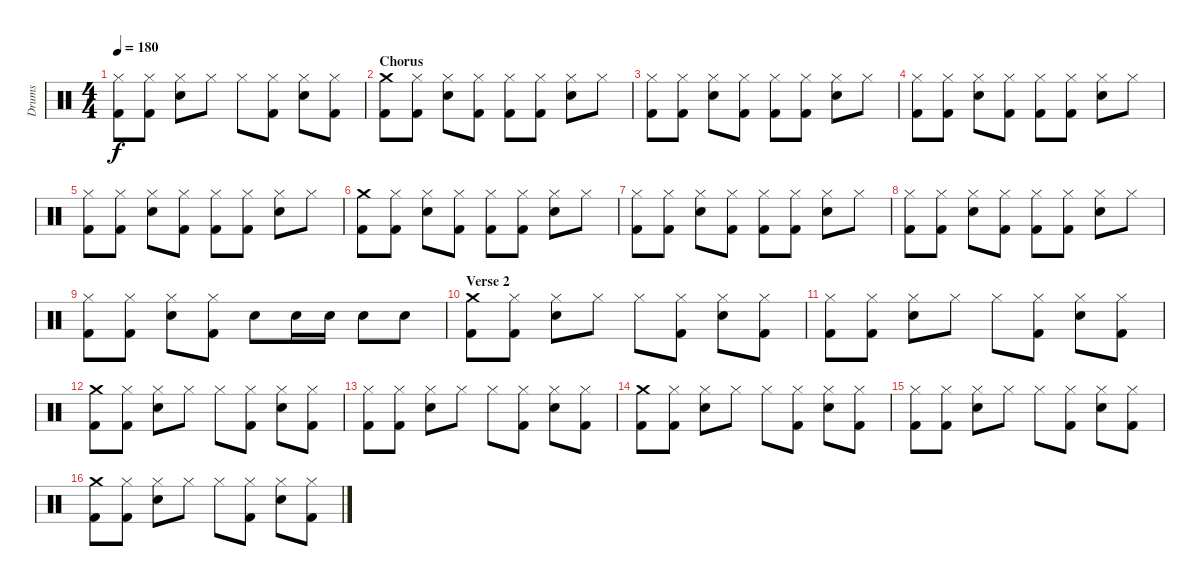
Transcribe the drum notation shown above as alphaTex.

\track ("Drums" "Drums") {instrument percussion}
\staff {score}
\articulation defaults
\ts (4 4)
\tempo 180
\clef neutral
\ks c
("Hi-Hat (closed)" "Kick (hit) 2").8{dy f} ("Hi-Hat (closed)" "Kick (hit) 2").8 ("Hi-Hat (closed)" "Electric Snare (hit)").8 "Hi-Hat (closed)".8 "Hi-Hat (closed)".8 ("Hi-Hat (closed)" "Kick (hit) 2").8 ("Hi-Hat (closed)" "Electric Snare (hit)").8 ("Hi-Hat (closed)" "Kick (hit) 2").8 |
\section ("" "Chorus")
("Crash medium (hit)" "Kick (hit) 2").8 ("Hi-Hat (closed)" "Kick (hit) 2").8 ("Hi-Hat (closed)" "Electric Snare (hit)").8 ("Hi-Hat (closed)" "Kick (hit) 2").8 ("Hi-Hat (closed)" "Kick (hit) 2").8 ("Hi-Hat (closed)" "Kick (hit) 2").8 ("Hi-Hat (closed)" "Electric Snare (hit)").8 "Hi-Hat (closed)".8 |
("Hi-Hat (closed)" "Kick (hit) 2").8 ("Hi-Hat (closed)" "Kick (hit) 2").8 ("Hi-Hat (closed)" "Electric Snare (hit)").8 ("Hi-Hat (closed)" "Kick (hit) 2").8 ("Hi-Hat (closed)" "Kick (hit) 2").8 ("Hi-Hat (closed)" "Kick (hit) 2").8 ("Hi-Hat (closed)" "Electric Snare (hit)").8 "Hi-Hat (closed)".8 |
("Hi-Hat (closed)" "Kick (hit) 2").8 ("Hi-Hat (closed)" "Kick (hit) 2").8 ("Hi-Hat (closed)" "Electric Snare (hit)").8 ("Hi-Hat (closed)" "Kick (hit) 2").8 ("Hi-Hat (closed)" "Kick (hit) 2").8 ("Hi-Hat (closed)" "Kick (hit) 2").8 ("Hi-Hat (closed)" "Electric Snare (hit)").8 "Hi-Hat (closed)".8 |
("Hi-Hat (closed)" "Kick (hit) 2").8 ("Hi-Hat (closed)" "Kick (hit) 2").8 ("Hi-Hat (closed)" "Electric Snare (hit)").8 ("Hi-Hat (closed)" "Kick (hit) 2").8 ("Hi-Hat (closed)" "Kick (hit) 2").8 ("Hi-Hat (closed)" "Kick (hit) 2").8 ("Hi-Hat (closed)" "Electric Snare (hit)").8 "Hi-Hat (closed)".8 |
("Crash medium (hit)" "Kick (hit) 2").8 ("Hi-Hat (closed)" "Kick (hit) 2").8 ("Hi-Hat (closed)" "Electric Snare (hit)").8 ("Hi-Hat (closed)" "Kick (hit) 2").8 ("Hi-Hat (closed)" "Kick (hit) 2").8 ("Hi-Hat (closed)" "Kick (hit) 2").8 ("Hi-Hat (closed)" "Electric Snare (hit)").8 "Hi-Hat (closed)".8 |
("Hi-Hat (closed)" "Kick (hit) 2").8 ("Hi-Hat (closed)" "Kick (hit) 2").8 ("Hi-Hat (closed)" "Electric Snare (hit)").8 ("Hi-Hat (closed)" "Kick (hit) 2").8 ("Hi-Hat (closed)" "Kick (hit) 2").8 ("Hi-Hat (closed)" "Kick (hit) 2").8 ("Hi-Hat (closed)" "Electric Snare (hit)").8 "Hi-Hat (closed)".8 |
("Hi-Hat (closed)" "Kick (hit) 2").8 ("Hi-Hat (closed)" "Kick (hit) 2").8 ("Hi-Hat (closed)" "Electric Snare (hit)").8 ("Hi-Hat (closed)" "Kick (hit) 2").8 ("Hi-Hat (closed)" "Kick (hit) 2").8 ("Hi-Hat (closed)" "Kick (hit) 2").8 ("Hi-Hat (closed)" "Electric Snare (hit)").8 "Hi-Hat (closed)".8 |
("Hi-Hat (closed)" "Kick (hit) 2").8 ("Hi-Hat (closed)" "Kick (hit) 2").8 ("Hi-Hat (closed)" "Electric Snare (hit)").8 ("Hi-Hat (closed)" "Kick (hit) 2").8 "Electric Snare (hit)".8 "Electric Snare (hit)".16 "Electric Snare (hit)".16 "Electric Snare (hit)".8 "Electric Snare (hit)".8 |
\section ("" "Verse 2")
("Crash medium (hit)" "Kick (hit) 2").8 ("Hi-Hat (closed)" "Kick (hit) 2").8 ("Hi-Hat (closed)" "Electric Snare (hit)").8 "Hi-Hat (closed)".8 "Hi-Hat (closed)".8 ("Hi-Hat (closed)" "Kick (hit) 2").8 ("Hi-Hat (closed)" "Electric Snare (hit)").8 ("Hi-Hat (closed)" "Kick (hit) 2").8 |
("Hi-Hat (closed)" "Kick (hit) 2").8 ("Hi-Hat (closed)" "Kick (hit) 2").8 ("Hi-Hat (closed)" "Electric Snare (hit)").8 "Hi-Hat (closed)".8 "Hi-Hat (closed)".8 ("Hi-Hat (closed)" "Kick (hit) 2").8 ("Hi-Hat (closed)" "Electric Snare (hit)").8 ("Hi-Hat (closed)" "Kick (hit) 2").8 |
("Crash medium (hit)" "Kick (hit) 2").8 ("Hi-Hat (closed)" "Kick (hit) 2").8 ("Hi-Hat (closed)" "Electric Snare (hit)").8 "Hi-Hat (closed)".8 "Hi-Hat (closed)".8 ("Hi-Hat (closed)" "Kick (hit) 2").8 ("Hi-Hat (closed)" "Electric Snare (hit)").8 ("Hi-Hat (closed)" "Kick (hit) 2").8 |
("Hi-Hat (closed)" "Kick (hit) 2").8 ("Hi-Hat (closed)" "Kick (hit) 2").8 ("Hi-Hat (closed)" "Electric Snare (hit)").8 "Hi-Hat (closed)".8 "Hi-Hat (closed)".8 ("Hi-Hat (closed)" "Kick (hit) 2").8 ("Hi-Hat (closed)" "Electric Snare (hit)").8 ("Hi-Hat (closed)" "Kick (hit) 2").8 |
("Crash medium (hit)" "Kick (hit) 2").8 ("Hi-Hat (closed)" "Kick (hit) 2").8 ("Hi-Hat (closed)" "Electric Snare (hit)").8 "Hi-Hat (closed)".8 "Hi-Hat (closed)".8 ("Hi-Hat (closed)" "Kick (hit) 2").8 ("Hi-Hat (closed)" "Electric Snare (hit)").8 ("Hi-Hat (closed)" "Kick (hit) 2").8 |
("Hi-Hat (closed)" "Kick (hit) 2").8 ("Hi-Hat (closed)" "Kick (hit) 2").8 ("Hi-Hat (closed)" "Electric Snare (hit)").8 "Hi-Hat (closed)".8 "Hi-Hat (closed)".8 ("Hi-Hat (closed)" "Kick (hit) 2").8 ("Hi-Hat (closed)" "Electric Snare (hit)").8 ("Hi-Hat (closed)" "Kick (hit) 2").8 |
("Crash medium (hit)" "Kick (hit) 2").8 ("Hi-Hat (closed)" "Kick (hit) 2").8 ("Hi-Hat (closed)" "Electric Snare (hit)").8 "Hi-Hat (closed)".8 "Hi-Hat (closed)".8 ("Hi-Hat (closed)" "Kick (hit) 2").8 ("Hi-Hat (closed)" "Electric Snare (hit)").8 ("Hi-Hat (closed)" "Kick (hit) 2").8
